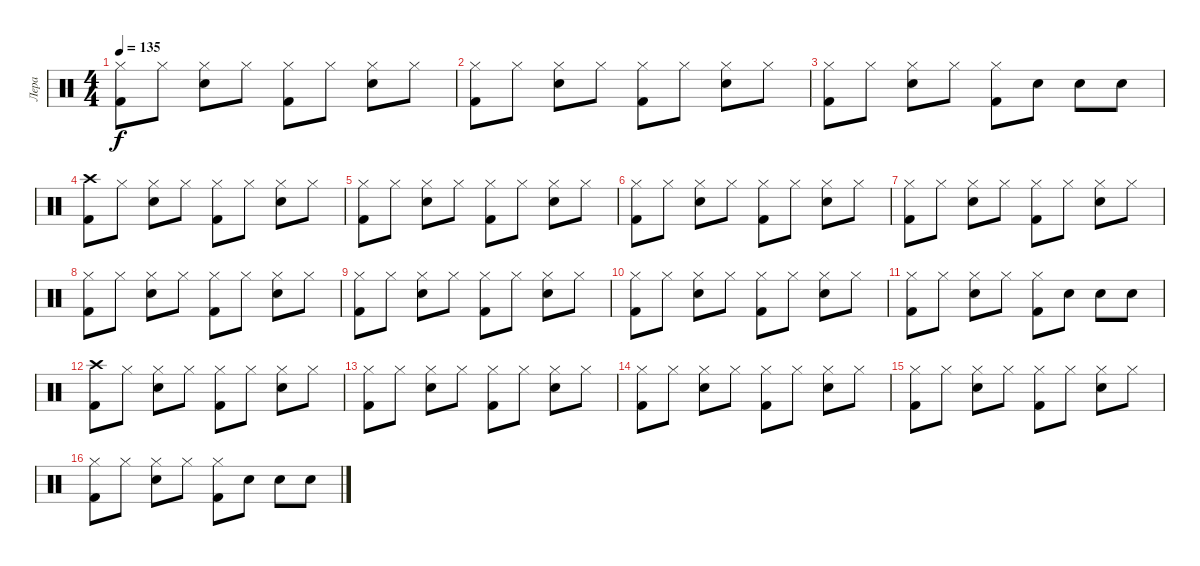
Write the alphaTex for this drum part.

\track ("Лера" "Лера") {instrument percussion}
\staff {score}
\articulation defaults
\ts (4 4)
\tempo 135
\clef neutral
\ks c
("Hi-Hat (closed)" "Kick (hit) 2").8{dy f} "Hi-Hat (closed)".8 ("Hi-Hat (closed)" "Electric Snare (hit)").8 "Hi-Hat (closed)".8 ("Hi-Hat (closed)" "Kick (hit) 2").8 "Hi-Hat (closed)".8 ("Hi-Hat (closed)" "Electric Snare (hit)").8 "Hi-Hat (closed)".8 |
("Hi-Hat (closed)" "Kick (hit) 2").8 "Hi-Hat (closed)".8 ("Hi-Hat (closed)" "Electric Snare (hit)").8 "Hi-Hat (closed)".8 ("Hi-Hat (closed)" "Kick (hit) 2").8 "Hi-Hat (closed)".8 ("Hi-Hat (closed)" "Electric Snare (hit)").8 "Hi-Hat (closed)".8 |
("Hi-Hat (closed)" "Kick (hit) 2").8 "Hi-Hat (closed)".8 ("Hi-Hat (closed)" "Electric Snare (hit)").8 "Hi-Hat (closed)".8 ("Hi-Hat (closed)" "Kick (hit) 2").8 "Electric Snare (hit)".8 "Electric Snare (hit)".8 "Electric Snare (hit)".8 |
("Crash high (hit)" "Kick (hit) 2").8 "Hi-Hat (closed)".8 ("Hi-Hat (closed)" "Electric Snare (hit)").8 "Hi-Hat (closed)".8 ("Hi-Hat (closed)" "Kick (hit) 2").8 "Hi-Hat (closed)".8 ("Hi-Hat (closed)" "Electric Snare (hit)").8 "Hi-Hat (closed)".8 |
("Hi-Hat (closed)" "Kick (hit) 2").8 "Hi-Hat (closed)".8 ("Hi-Hat (closed)" "Electric Snare (hit)").8 "Hi-Hat (closed)".8 ("Hi-Hat (closed)" "Kick (hit) 2").8 "Hi-Hat (closed)".8 ("Hi-Hat (closed)" "Electric Snare (hit)").8 "Hi-Hat (closed)".8 |
("Hi-Hat (closed)" "Kick (hit) 2").8 "Hi-Hat (closed)".8 ("Hi-Hat (closed)" "Electric Snare (hit)").8 "Hi-Hat (closed)".8 ("Hi-Hat (closed)" "Kick (hit) 2").8 "Hi-Hat (closed)".8 ("Hi-Hat (closed)" "Electric Snare (hit)").8 "Hi-Hat (closed)".8 |
("Hi-Hat (closed)" "Kick (hit) 2").8 "Hi-Hat (closed)".8 ("Hi-Hat (closed)" "Electric Snare (hit)").8 "Hi-Hat (closed)".8 ("Hi-Hat (closed)" "Kick (hit) 2").8 "Hi-Hat (closed)".8 ("Hi-Hat (closed)" "Electric Snare (hit)").8 "Hi-Hat (closed)".8 |
("Hi-Hat (closed)" "Kick (hit) 2").8 "Hi-Hat (closed)".8 ("Hi-Hat (closed)" "Electric Snare (hit)").8 "Hi-Hat (closed)".8 ("Hi-Hat (closed)" "Kick (hit) 2").8 "Hi-Hat (closed)".8 ("Hi-Hat (closed)" "Electric Snare (hit)").8 "Hi-Hat (closed)".8 |
("Hi-Hat (closed)" "Kick (hit) 2").8 "Hi-Hat (closed)".8 ("Hi-Hat (closed)" "Electric Snare (hit)").8 "Hi-Hat (closed)".8 ("Hi-Hat (closed)" "Kick (hit) 2").8 "Hi-Hat (closed)".8 ("Hi-Hat (closed)" "Electric Snare (hit)").8 "Hi-Hat (closed)".8 |
("Hi-Hat (closed)" "Kick (hit) 2").8 "Hi-Hat (closed)".8 ("Hi-Hat (closed)" "Electric Snare (hit)").8 "Hi-Hat (closed)".8 ("Hi-Hat (closed)" "Kick (hit) 2").8 "Hi-Hat (closed)".8 ("Hi-Hat (closed)" "Electric Snare (hit)").8 "Hi-Hat (closed)".8 |
("Hi-Hat (closed)" "Kick (hit) 2").8 "Hi-Hat (closed)".8 ("Hi-Hat (closed)" "Electric Snare (hit)").8 "Hi-Hat (closed)".8 ("Hi-Hat (closed)" "Kick (hit) 2").8 "Electric Snare (hit)".8 "Electric Snare (hit)".8 "Electric Snare (hit)".8 |
("Crash high (hit)" "Kick (hit) 2").8 "Hi-Hat (closed)".8 ("Hi-Hat (closed)" "Electric Snare (hit)").8 "Hi-Hat (closed)".8 ("Hi-Hat (closed)" "Kick (hit) 2").8 "Hi-Hat (closed)".8 ("Hi-Hat (closed)" "Electric Snare (hit)").8 "Hi-Hat (closed)".8 |
("Hi-Hat (closed)" "Kick (hit) 2").8 "Hi-Hat (closed)".8 ("Hi-Hat (closed)" "Electric Snare (hit)").8 "Hi-Hat (closed)".8 ("Hi-Hat (closed)" "Kick (hit) 2").8 "Hi-Hat (closed)".8 ("Hi-Hat (closed)" "Electric Snare (hit)").8 "Hi-Hat (closed)".8 |
("Hi-Hat (closed)" "Kick (hit) 2").8 "Hi-Hat (closed)".8 ("Hi-Hat (closed)" "Electric Snare (hit)").8 "Hi-Hat (closed)".8 ("Hi-Hat (closed)" "Kick (hit) 2").8 "Hi-Hat (closed)".8 ("Hi-Hat (closed)" "Electric Snare (hit)").8 "Hi-Hat (closed)".8 |
("Hi-Hat (closed)" "Kick (hit) 2").8 "Hi-Hat (closed)".8 ("Hi-Hat (closed)" "Electric Snare (hit)").8 "Hi-Hat (closed)".8 ("Hi-Hat (closed)" "Kick (hit) 2").8 "Hi-Hat (closed)".8 ("Hi-Hat (closed)" "Electric Snare (hit)").8 "Hi-Hat (closed)".8 |
("Hi-Hat (closed)" "Kick (hit) 2").8 "Hi-Hat (closed)".8 ("Hi-Hat (closed)" "Electric Snare (hit)").8 "Hi-Hat (closed)".8 ("Hi-Hat (closed)" "Kick (hit) 2").8 "Electric Snare (hit)".8 "Electric Snare (hit)".8 "Electric Snare (hit)".8
